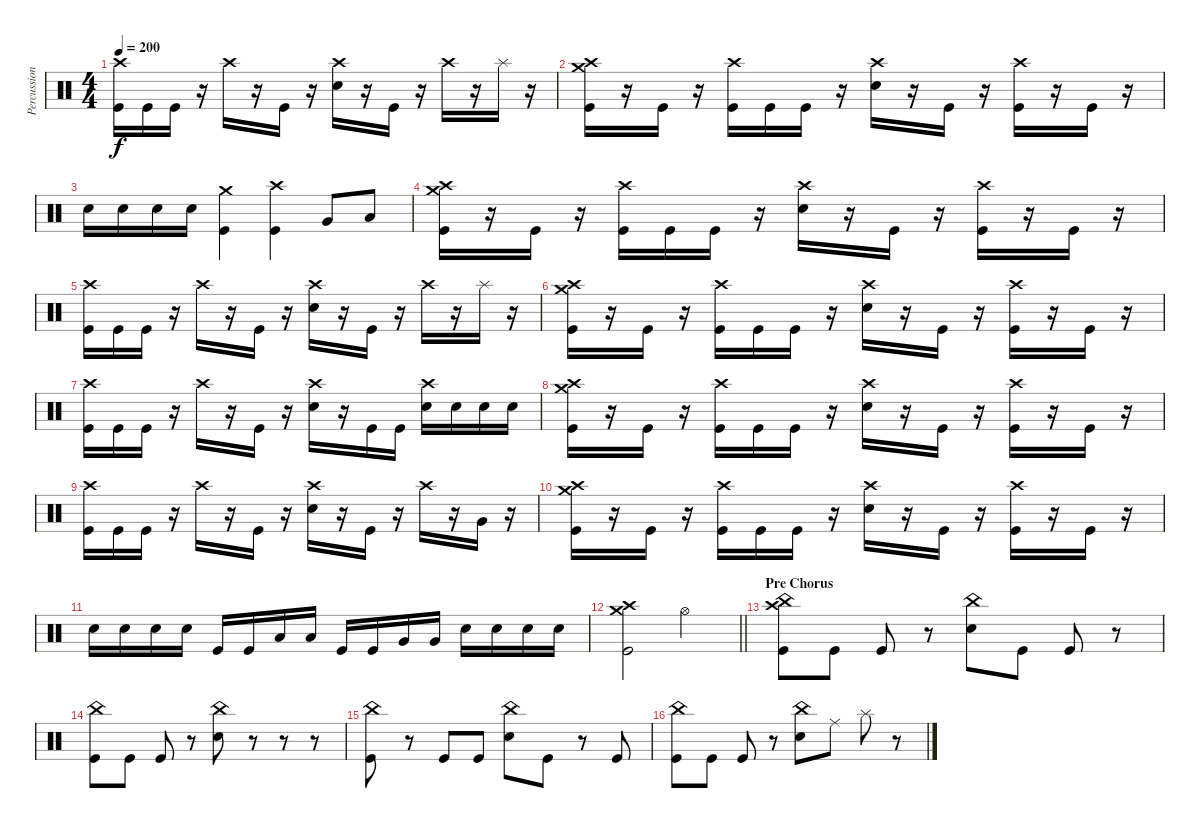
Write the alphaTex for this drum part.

\track ("Percussion" "Percussion") {instrument percussion}
\staff {score}
\articulation defaults
\ts (4 4)
\tempo 200
\clef neutral
\ks c
("Crash high (hit)" "Kick (hit)").16{dy f} "Kick (hit)".16 "Kick (hit)".16 r.16 "Crash high (hit)".16 r.16 "Kick (hit)".16 r.16 ("Crash high (hit)" "Snare (hit) 2").16 r.16 "Kick (hit)".16 r.16 "Crash high (hit)".16 r.16 "Splash (hit)".16 r.16 |
("Crash high (hit)" "Crash medium (hit)" "Kick (hit)").16 r.16 "Kick (hit)".16 r.16 ("Crash high (hit)" "Kick (hit)").16 "Kick (hit)".16 "Kick (hit)".16 r.16 ("Crash high (hit)" "Snare (hit) 2").16 r.16 "Kick (hit)".16 r.16 ("Crash high (hit)" "Kick (hit)").16 r.16 "Kick (hit)".16 r.16 |
"Snare (hit) 2".16 "Snare (hit) 2".16 "Snare (hit) 2".16 "Snare (hit) 2".16 ("Kick (hit)" "Crash medium (hit)").4 ("Kick (hit)" "Crash high (hit)").4 "Very Low Tom (hit)".8 "Low Floor Tom (hit)".8 |
("Crash high (hit)" "Crash medium (hit)" "Kick (hit)").16 r.16 "Kick (hit)".16 r.16 ("Crash high (hit)" "Kick (hit)").16 "Kick (hit)".16 "Kick (hit)".16 r.16 ("Crash high (hit)" "Snare (hit) 2").16 r.16 "Kick (hit)".16 r.16 ("Crash high (hit)" "Kick (hit)").16 r.16 "Kick (hit)".16 r.16 |
("Crash high (hit)" "Kick (hit)").16 "Kick (hit)".16 "Kick (hit)".16 r.16 "Crash high (hit)".16 r.16 "Kick (hit)".16 r.16 ("Crash high (hit)" "Snare (hit) 2").16 r.16 "Kick (hit)".16 r.16 "Crash high (hit)".16 r.16 "Splash (hit)".16 r.16 |
("Crash high (hit)" "Crash medium (hit)" "Kick (hit)").16 r.16 "Kick (hit)".16 r.16 ("Crash high (hit)" "Kick (hit)").16 "Kick (hit)".16 "Kick (hit)".16 r.16 ("Crash high (hit)" "Snare (hit) 2").16 r.16 "Kick (hit)".16 r.16 ("Crash high (hit)" "Kick (hit)").16 r.16 "Kick (hit)".16 r.16 |
("Crash high (hit)" "Kick (hit)").16 "Kick (hit)".16 "Kick (hit)".16 r.16 "Crash high (hit)".16 r.16 "Kick (hit)".16 r.16 ("Crash high (hit)" "Snare (hit) 2").16 r.16 "Kick (hit)".16 "Kick (hit)".16 ("Crash high (hit)" "Snare (hit) 2").16 "Snare (hit) 2".16 "Snare (hit) 2".16 "Snare (hit) 2".16 |
("Crash high (hit)" "Crash medium (hit)" "Kick (hit)").16 r.16 "Kick (hit)".16 r.16 ("Crash high (hit)" "Kick (hit)").16 "Kick (hit)".16 "Kick (hit)".16 r.16 ("Crash high (hit)" "Snare (hit) 2").16 r.16 "Kick (hit)".16 r.16 ("Crash high (hit)" "Kick (hit)").16 r.16 "Kick (hit)".16 r.16 |
("Crash high (hit)" "Kick (hit)").16 "Kick (hit)".16 "Kick (hit)".16 r.16 "Crash high (hit)".16 r.16 "Kick (hit)".16 r.16 ("Crash high (hit)" "Snare (hit) 2").16 r.16 "Kick (hit)".16 r.16 "Crash high (hit)".16 r.16 "Very Low Tom (hit)".16 r.16 |
("Crash high (hit)" "Crash medium (hit)" "Kick (hit)").16 r.16 "Kick (hit)".16 r.16 ("Crash high (hit)" "Kick (hit)").16 "Kick (hit)".16 "Kick (hit)".16 r.16 ("Crash high (hit)" "Snare (hit) 2").16 r.16 "Kick (hit)".16 r.16 ("Crash high (hit)" "Kick (hit)").16 r.16 "Kick (hit)".16 r.16 |
"Snare (hit) 2".16 "Snare (hit) 2".16 "Snare (hit) 2".16 "Snare (hit) 2".16 "Kick (hit)".16 "Kick (hit)".16 "Low Tom (hit)".16 "Low Tom (hit)".16 "Kick (hit)".16 "Kick (hit)".16 "Very Low Tom (hit)".16 "Very Low Tom (hit)".16 "Snare (hit) 2".16 "Snare (hit) 2".16 "Snare (hit) 2".16 "Snare (hit) 2".16 |
\barLineRight lightlight
("Crash high (hit)" "Crash medium (hit)" "Kick (hit)").2 "Hi-Hat (open)".2 |
\section ("" "Pre Chorus")
("Crash high (hit)" "China (hit)" "Kick (hit)").8 "Kick (hit)".8 "Kick (hit)".8 r.8 ("China (hit)" "Snare (hit) 2").8 "Kick (hit)".8 "Kick (hit)".8 r.8 |
("China (hit)" "Kick (hit)").8 "Kick (hit)".8 "Kick (hit)".8 r.8 ("China (hit)" "Snare (hit) 2").8 r.8 r.8 r.8 |
("Kick (hit)" "China (hit)").8 r.8 "Kick (hit)".8 "Kick (hit)".8 ("China (hit)" "Snare (hit) 2").8 "Kick (hit)".8 r.8 "Kick (hit)".8 |
("China (hit)" "Kick (hit)").8 "Kick (hit)".8 "Kick (hit)".8 r.8 ("Snare (hit) 2" "China (hit)").8 "Ride (middle)".8 "Splash (hit)".8 r.8
